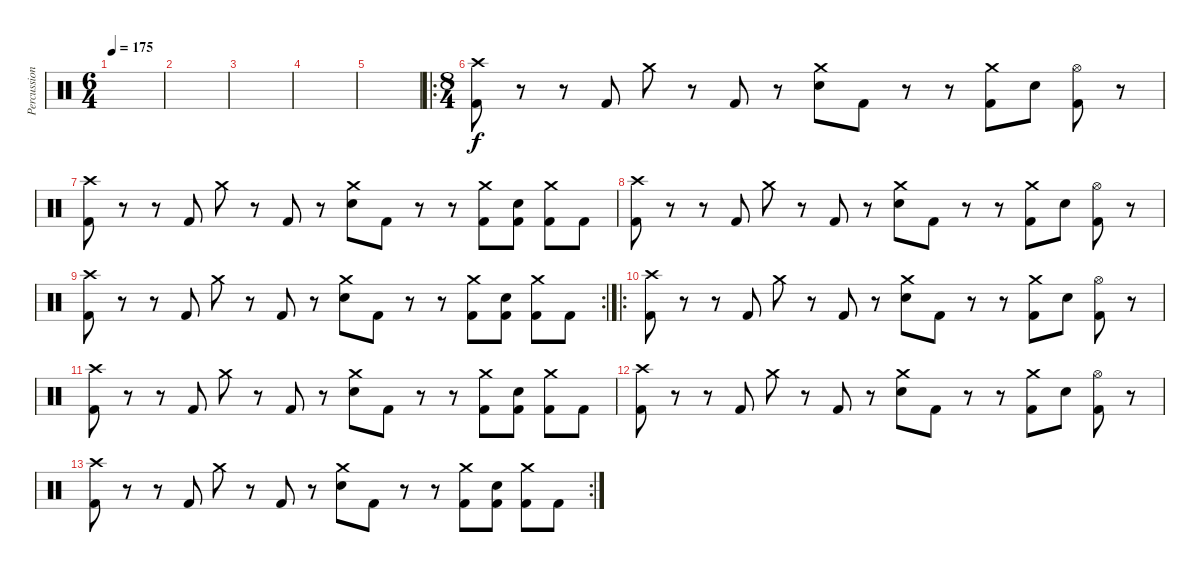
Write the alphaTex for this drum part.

\track ("Percussion" "Percussion") {instrument percussion}
\staff {score}
\articulation defaults
\ts (6 4)
\tempo 175
\clef neutral
\ks c
|
|
|
|
|
\ro
\ts (8 4)
("Crash high (hit)" "Kick (hit) 2").8 r.8 r.8 "Kick (hit) 2".8 "Crash medium (hit)".8 r.8 "Kick (hit) 2".8 r.8 ("Crash medium (hit)" "Electric Snare (hit)").8 "Kick (hit) 2".8 r.8 r.8 ("Crash medium (hit)" "Kick (hit) 2").8 "Electric Snare (hit)".8 ("Hi-Hat (open)" "Kick (hit) 2").8 r.8 |
("Crash high (hit)" "Kick (hit) 2").8 r.8 r.8 "Kick (hit) 2".8 "Crash medium (hit)".8 r.8 "Kick (hit) 2".8 r.8 ("Crash medium (hit)" "Electric Snare (hit)").8 "Kick (hit) 2".8 r.8 r.8 ("Crash medium (hit)" "Kick (hit) 2").8 ("Electric Snare (hit)" "Kick (hit) 2").8 ("Crash medium (hit)" "Kick (hit) 2").8 "Kick (hit) 2".8 |
("Crash high (hit)" "Kick (hit) 2").8 r.8 r.8 "Kick (hit) 2".8 "Crash medium (hit)".8 r.8 "Kick (hit) 2".8 r.8 ("Crash medium (hit)" "Electric Snare (hit)").8 "Kick (hit) 2".8 r.8 r.8 ("Crash medium (hit)" "Kick (hit) 2").8 "Electric Snare (hit)".8 ("Hi-Hat (open)" "Kick (hit) 2").8 r.8 |
\rc 2
("Crash high (hit)" "Kick (hit) 2").8 r.8 r.8 "Kick (hit) 2".8 "Crash medium (hit)".8 r.8 "Kick (hit) 2".8 r.8 ("Crash medium (hit)" "Electric Snare (hit)").8 "Kick (hit) 2".8 r.8 r.8 ("Crash medium (hit)" "Kick (hit) 2").8 ("Electric Snare (hit)" "Kick (hit) 2").8 ("Crash medium (hit)" "Kick (hit) 2").8 "Kick (hit) 2".8 |
\ro
("Crash high (hit)" "Kick (hit) 2").8 r.8 r.8 "Kick (hit) 2".8 "Crash medium (hit)".8 r.8 "Kick (hit) 2".8 r.8 ("Crash medium (hit)" "Electric Snare (hit)").8 "Kick (hit) 2".8 r.8 r.8 ("Crash medium (hit)" "Kick (hit) 2").8 "Electric Snare (hit)".8 ("Hi-Hat (open)" "Kick (hit) 2").8 r.8 |
("Crash high (hit)" "Kick (hit) 2").8 r.8 r.8 "Kick (hit) 2".8 "Crash medium (hit)".8 r.8 "Kick (hit) 2".8 r.8 ("Crash medium (hit)" "Electric Snare (hit)").8 "Kick (hit) 2".8 r.8 r.8 ("Crash medium (hit)" "Kick (hit) 2").8 ("Electric Snare (hit)" "Kick (hit) 2").8 ("Crash medium (hit)" "Kick (hit) 2").8 "Kick (hit) 2".8 |
("Crash high (hit)" "Kick (hit) 2").8 r.8 r.8 "Kick (hit) 2".8 "Crash medium (hit)".8 r.8 "Kick (hit) 2".8 r.8 ("Crash medium (hit)" "Electric Snare (hit)").8 "Kick (hit) 2".8 r.8 r.8 ("Crash medium (hit)" "Kick (hit) 2").8 "Electric Snare (hit)".8 ("Hi-Hat (open)" "Kick (hit) 2").8 r.8 |
\rc 2
("Crash high (hit)" "Kick (hit) 2").8 r.8 r.8 "Kick (hit) 2".8 "Crash medium (hit)".8 r.8 "Kick (hit) 2".8 r.8 ("Crash medium (hit)" "Electric Snare (hit)").8 "Kick (hit) 2".8 r.8 r.8 ("Crash medium (hit)" "Kick (hit) 2").8 ("Electric Snare (hit)" "Kick (hit) 2").8 ("Crash medium (hit)" "Kick (hit) 2").8 "Kick (hit) 2".8
